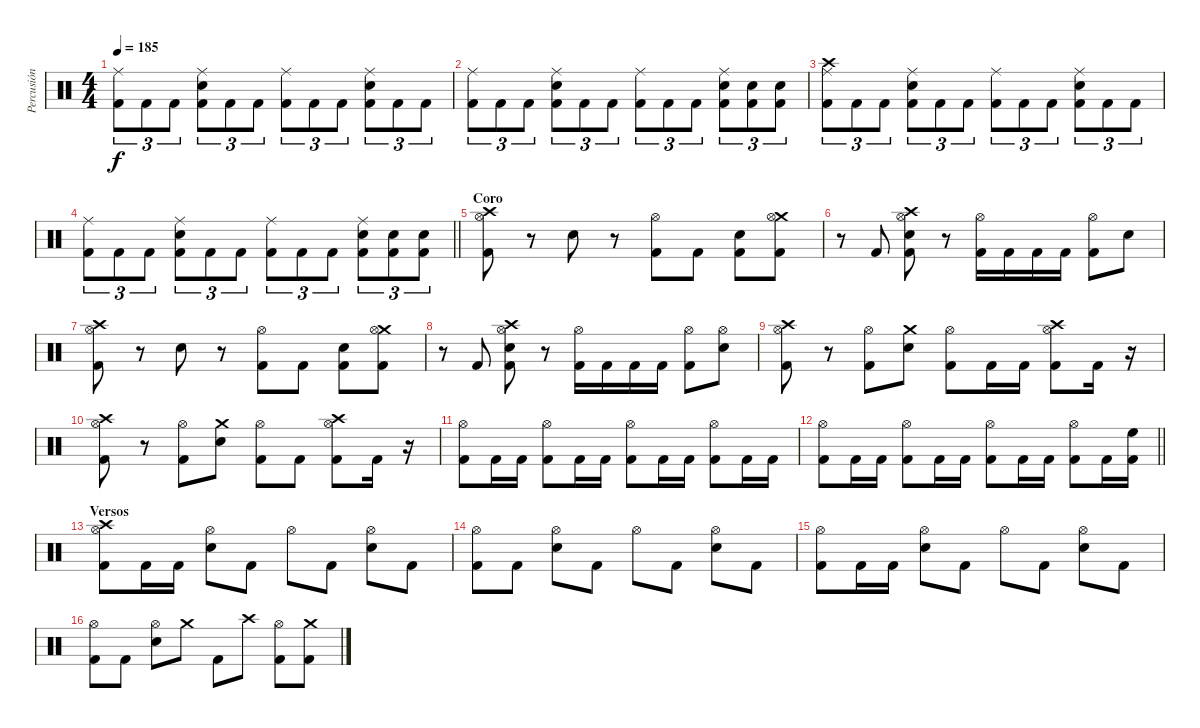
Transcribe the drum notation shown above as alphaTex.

\track ("Percusión" "Percusión") {instrument percussion}
\staff {score}
\articulation defaults
\ts (4 4)
\tempo 185
\clef neutral
\ks c
("Ride (middle)" "Kick (hit) 2").8{tu (3 2) dy f} "Kick (hit) 2".8{tu (3 2)} "Kick (hit) 2".8{tu (3 2)} ("Ride (middle)" "Snare (hit) 2" "Kick (hit) 2").8{tu (3 2)} "Kick (hit) 2".8{tu (3 2)} "Kick (hit) 2".8{tu (3 2)} ("Ride (middle)" "Kick (hit) 2").8{tu (3 2)} "Kick (hit) 2".8{tu (3 2)} "Kick (hit) 2".8{tu (3 2)} ("Ride (middle)" "Snare (hit) 2" "Kick (hit) 2").8{tu (3 2)} "Kick (hit) 2".8{tu (3 2)} "Kick (hit) 2".8{tu (3 2)} |
("Ride (middle)" "Kick (hit) 2").8{tu (3 2)} "Kick (hit) 2".8{tu (3 2)} "Kick (hit) 2".8{tu (3 2)} ("Ride (middle)" "Snare (hit) 2" "Kick (hit) 2").8{tu (3 2)} "Kick (hit) 2".8{tu (3 2)} "Kick (hit) 2".8{tu (3 2)} ("Ride (middle)" "Kick (hit) 2").8{tu (3 2)} "Kick (hit) 2".8{tu (3 2)} "Kick (hit) 2".8{tu (3 2)} ("Ride (middle)" "Snare (hit) 2" "Kick (hit) 2").8{tu (3 2)} ("Snare (hit) 2" "Kick (hit) 2").8{tu (3 2)} ("Snare (hit) 2" "Kick (hit) 2").8{tu (3 2)} |
("Crash high (hit)" "Ride (middle)" "Kick (hit) 2").8{tu (3 2)} "Kick (hit) 2".8{tu (3 2)} "Kick (hit) 2".8{tu (3 2)} ("Ride (middle)" "Snare (hit) 2" "Kick (hit) 2").8{tu (3 2)} "Kick (hit) 2".8{tu (3 2)} "Kick (hit) 2".8{tu (3 2)} ("Ride (middle)" "Kick (hit) 2").8{tu (3 2)} "Kick (hit) 2".8{tu (3 2)} "Kick (hit) 2".8{tu (3 2)} ("Ride (middle)" "Snare (hit) 2" "Kick (hit) 2").8{tu (3 2)} "Kick (hit) 2".8{tu (3 2)} "Kick (hit) 2".8{tu (3 2)} |
\barLineRight lightlight
("Ride (middle)" "Kick (hit) 2").8{tu (3 2)} "Kick (hit) 2".8{tu (3 2)} "Kick (hit) 2".8{tu (3 2)} ("Ride (middle)" "Snare (hit) 2" "Kick (hit) 2").8{tu (3 2)} "Kick (hit) 2".8{tu (3 2)} "Kick (hit) 2".8{tu (3 2)} ("Ride (middle)" "Kick (hit) 2").8{tu (3 2)} "Kick (hit) 2".8{tu (3 2)} "Kick (hit) 2".8{tu (3 2)} ("Ride (middle)" "Snare (hit) 2" "Kick (hit) 2").8{tu (3 2)} ("Snare (hit) 2" "Kick (hit) 2").8{tu (3 2)} ("Snare (hit) 2" "Kick (hit) 2").8{tu (3 2)} |
\section ("" "Coro")
("Crash high (hit)" "Hi-Hat (open)" "Kick (hit) 2").8 r.8 "Snare (hit) 2".8 r.8 ("Hi-Hat (open)" "Kick (hit) 2").8 "Kick (hit) 2".8 ("Snare (hit) 2" "Kick (hit) 2").8 ("Crash medium (hit)" "Hi-Hat (open)" "Kick (hit) 2").8 |
r.8 "Kick (hit) 2".8 ("Crash high (hit)" "Hi-Hat (open)" "Snare (hit) 2" "Kick (hit) 2").8 r.8 ("Hi-Hat (open)" "Kick (hit) 2").16 "Kick (hit) 2".16 "Kick (hit) 2".16 "Kick (hit) 2".16 ("Hi-Hat (open)" "Kick (hit) 2").8 "Snare (hit) 2".8 |
("Crash high (hit)" "Hi-Hat (open)" "Kick (hit) 2").8 r.8 "Snare (hit) 2".8 r.8 ("Hi-Hat (open)" "Kick (hit) 2").8 "Kick (hit) 2".8 ("Snare (hit) 2" "Kick (hit) 2").8 ("Crash medium (hit)" "Hi-Hat (open)" "Kick (hit) 2").8 |
r.8 "Kick (hit) 2".8 ("Crash high (hit)" "Hi-Hat (open)" "Snare (hit) 2" "Kick (hit) 2").8 r.8 ("Hi-Hat (open)" "Kick (hit) 2").16 "Kick (hit) 2".16 "Kick (hit) 2".16 "Kick (hit) 2".16 ("Hi-Hat (open)" "Kick (hit) 2").8 ("Hi-Hat (open)" "Snare (hit) 2").8 |
("Crash high (hit)" "Hi-Hat (open)" "Kick (hit) 2").8 r.8 ("Hi-Hat (open)" "Kick (hit) 2").8 ("Crash medium (hit)" "Snare (hit) 2").8 ("Hi-Hat (open)" "Kick (hit) 2").8 "Kick (hit) 2".16 "Kick (hit) 2".16 ("Crash high (hit)" "Hi-Hat (open)" "Kick (hit) 2").8 "Kick (hit) 2".16 r.16 |
("Crash high (hit)" "Hi-Hat (open)" "Kick (hit) 2").8 r.8 ("Hi-Hat (open)" "Kick (hit) 2").8 ("Crash medium (hit)" "Snare (hit) 2").8 ("Hi-Hat (open)" "Kick (hit) 2").8 "Kick (hit) 2".8 ("Crash high (hit)" "Hi-Hat (open)" "Kick (hit) 2").8 "Kick (hit) 2".16 r.16 |
("Hi-Hat (open)" "Kick (hit) 2").8 "Kick (hit) 2".16 "Kick (hit) 2".16 ("Hi-Hat (open)" "Kick (hit) 2").8 "Kick (hit) 2".16 "Kick (hit) 2".16 ("Hi-Hat (open)" "Kick (hit) 2").8 "Kick (hit) 2".16 "Kick (hit) 2".16 ("Hi-Hat (open)" "Kick (hit) 2").8 "Kick (hit) 2".16 "Kick (hit) 2".16 |
\barLineRight lightlight
("Hi-Hat (open)" "Kick (hit) 2").8 "Kick (hit) 2".16 "Kick (hit) 2".16 ("Hi-Hat (open)" "Kick (hit) 2").8 "Kick (hit) 2".16 "Kick (hit) 2".16 ("Hi-Hat (open)" "Kick (hit) 2").8 "Kick (hit) 2".16 "Kick (hit) 2".16 ("Hi-Hat (open)" "Kick (hit) 2").8 "Kick (hit) 2".16 ("High Floor Tom (hit)" "Kick (hit) 2").16 |
\section ("" "Versos")
("Crash high (hit)" "Hi-Hat (open)" "Kick (hit) 2").8 "Kick (hit) 2".16 "Kick (hit) 2".16 ("Hi-Hat (open)" "Snare (hit) 2").8 "Kick (hit) 2".8 "Hi-Hat (open)".8 "Kick (hit) 2".8 ("Hi-Hat (open)" "Snare (hit) 2").8 "Kick (hit) 2".8 |
("Hi-Hat (open)" "Kick (hit) 2").8 "Kick (hit) 2".8 ("Hi-Hat (open)" "Snare (hit) 2").8 "Kick (hit) 2".8 "Hi-Hat (open)".8 "Kick (hit) 2".8 ("Hi-Hat (open)" "Snare (hit) 2").8 "Kick (hit) 2".8 |
("Hi-Hat (open)" "Kick (hit) 2").8 "Kick (hit) 2".16 "Kick (hit) 2".16 ("Hi-Hat (open)" "Snare (hit) 2").8 "Kick (hit) 2".8 "Hi-Hat (open)".8 "Kick (hit) 2".8 ("Hi-Hat (open)" "Snare (hit) 2").8 "Kick (hit) 2".8 |
("Hi-Hat (open)" "Kick (hit) 2").8 "Kick (hit) 2".8 ("Hi-Hat (open)" "Snare (hit) 2").8 "Crash medium (hit)".8 "Kick (hit) 2".8 "Crash high (hit)".8 ("Hi-Hat (open)" "Kick (hit) 2").8 ("Crash medium (hit)" "Kick (hit) 2").8
